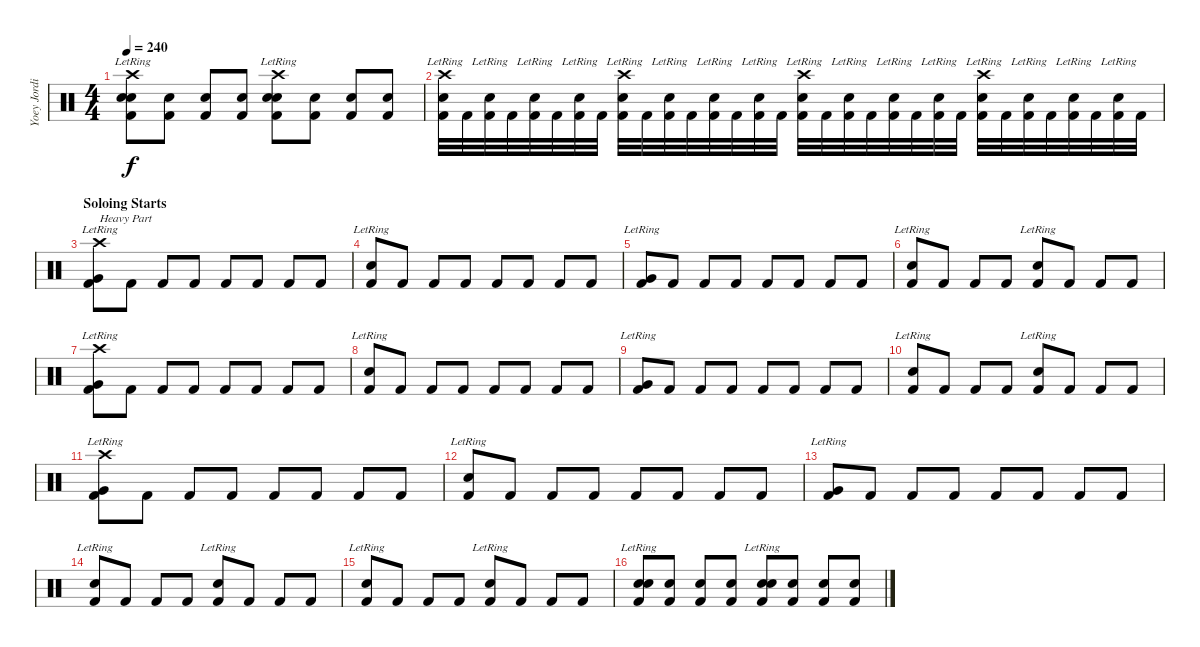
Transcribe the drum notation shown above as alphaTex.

\track ("Yoey Jordison" "Yoey Jordi") {instrument percussion}
\staff {score}
\articulation defaults
\ts (4 4)
\tempo 240
\clef neutral
\ks c
("Crash high (hit)" "Snare (hit) 2" "Kick (hit) 2" "Electric Snare (hit)"{lr}).8{dy f} ("Snare (hit) 2" "Kick (hit) 2").8 ("Snare (hit) 2" "Kick (hit) 2").8 ("Snare (hit) 2" "Kick (hit) 2").8 ("Crash high (hit)" "Snare (hit) 2" "Kick (hit) 2" "Electric Snare (hit)"{lr}).8 ("Snare (hit) 2" "Kick (hit) 2").8 ("Snare (hit) 2" "Kick (hit) 2").8 ("Snare (hit) 2" "Kick (hit) 2").8 |
("Crash high (hit)" "Kick (hit) 2" "Electric Snare (hit)"{lr}).32 "Kick (hit) 2".32 ("Kick (hit) 2" "Electric Snare (hit)"{lr}).32 "Kick (hit) 2".32 ("Kick (hit) 2" "Electric Snare (hit)"{lr}).32 "Kick (hit) 2".32 ("Kick (hit) 2" "Electric Snare (hit)"{lr}).32 "Kick (hit) 2".32 ("Crash high (hit)" "Kick (hit) 2" "Electric Snare (hit)"{lr}).32 "Kick (hit) 2".32 ("Kick (hit) 2" "Electric Snare (hit)"{lr}).32 "Kick (hit) 2".32 ("Kick (hit) 2" "Electric Snare (hit)"{lr}).32 "Kick (hit) 2".32 ("Kick (hit) 2" "Electric Snare (hit)"{lr}).32 "Kick (hit) 2".32 ("Crash high (hit)" "Kick (hit) 2" "Electric Snare (hit)"{lr}).32 "Kick (hit) 2".32 ("Kick (hit) 2" "Electric Snare (hit)"{lr}).32 "Kick (hit) 2".32 ("Kick (hit) 2" "Electric Snare (hit)"{lr}).32 "Kick (hit) 2".32 ("Kick (hit) 2" "Electric Snare (hit)"{lr}).32 "Kick (hit) 2".32 ("Crash high (hit)" "Kick (hit) 2" "Electric Snare (hit)"{lr}).32 "Kick (hit) 2".32 ("Kick (hit) 2" "Electric Snare (hit)"{lr}).32 "Kick (hit) 2".32 ("Kick (hit) 2" "Electric Snare (hit)"{lr}).32 "Kick (hit) 2".32 ("Kick (hit) 2" "Electric Snare (hit)"{lr}).32 "Kick (hit) 2".32 |
\section ("" "Soloing Starts")
("Crash high (hit)" "Kick (hit) 2" "Very Low Tom (hit)"{lr}).8{txt "Heavy Part"} "Kick (hit) 2".8 "Kick (hit) 2".8 "Kick (hit) 2".8 "Kick (hit) 2".8 "Kick (hit) 2".8 "Kick (hit) 2".8 "Kick (hit) 2".8 |
("Kick (hit) 2" "Snare (hit) 2"{lr}).8 "Kick (hit) 2".8 "Kick (hit) 2".8 "Kick (hit) 2".8 "Kick (hit) 2".8 "Kick (hit) 2".8 "Kick (hit) 2".8 "Kick (hit) 2".8 |
("Kick (hit) 2" "Very Low Tom (hit)"{lr}).8 "Kick (hit) 2".8 "Kick (hit) 2".8 "Kick (hit) 2".8 "Kick (hit) 2".8 "Kick (hit) 2".8 "Kick (hit) 2".8 "Kick (hit) 2".8 |
("Kick (hit) 2" "Snare (hit) 2"{lr}).8 "Kick (hit) 2".8 "Kick (hit) 2".8 "Kick (hit) 2".8 ("Kick (hit) 2" "Snare (hit) 2"{lr}).8 "Kick (hit) 2".8 "Kick (hit) 2".8 "Kick (hit) 2".8 |
("Crash high (hit)" "Kick (hit) 2" "Very Low Tom (hit)"{lr}).8 "Kick (hit) 2".8 "Kick (hit) 2".8 "Kick (hit) 2".8 "Kick (hit) 2".8 "Kick (hit) 2".8 "Kick (hit) 2".8 "Kick (hit) 2".8 |
("Kick (hit) 2" "Snare (hit) 2"{lr}).8 "Kick (hit) 2".8 "Kick (hit) 2".8 "Kick (hit) 2".8 "Kick (hit) 2".8 "Kick (hit) 2".8 "Kick (hit) 2".8 "Kick (hit) 2".8 |
("Kick (hit) 2" "Very Low Tom (hit)"{lr}).8 "Kick (hit) 2".8 "Kick (hit) 2".8 "Kick (hit) 2".8 "Kick (hit) 2".8 "Kick (hit) 2".8 "Kick (hit) 2".8 "Kick (hit) 2".8 |
("Kick (hit) 2" "Snare (hit) 2"{lr}).8 "Kick (hit) 2".8 "Kick (hit) 2".8 "Kick (hit) 2".8 ("Kick (hit) 2" "Snare (hit) 2"{lr}).8 "Kick (hit) 2".8 "Kick (hit) 2".8 "Kick (hit) 2".8 |
("Crash high (hit)" "Kick (hit) 2" "Very Low Tom (hit)"{lr}).8 "Kick (hit) 2".8 "Kick (hit) 2".8 "Kick (hit) 2".8 "Kick (hit) 2".8 "Kick (hit) 2".8 "Kick (hit) 2".8 "Kick (hit) 2".8 |
("Kick (hit) 2" "Snare (hit) 2"{lr}).8 "Kick (hit) 2".8 "Kick (hit) 2".8 "Kick (hit) 2".8 "Kick (hit) 2".8 "Kick (hit) 2".8 "Kick (hit) 2".8 "Kick (hit) 2".8 |
("Kick (hit) 2" "Very Low Tom (hit)"{lr}).8 "Kick (hit) 2".8 "Kick (hit) 2".8 "Kick (hit) 2".8 "Kick (hit) 2".8 "Kick (hit) 2".8 "Kick (hit) 2".8 "Kick (hit) 2".8 |
("Kick (hit) 2" "Snare (hit) 2"{lr}).8 "Kick (hit) 2".8 "Kick (hit) 2".8 "Kick (hit) 2".8 ("Kick (hit) 2" "Snare (hit) 2"{lr}).8 "Kick (hit) 2".8 "Kick (hit) 2".8 "Kick (hit) 2".8 |
("Kick (hit) 2" "Electric Snare (hit)"{lr}).8 "Kick (hit) 2".8 "Kick (hit) 2".8 "Kick (hit) 2".8 ("Kick (hit) 2" "Electric Snare (hit)"{lr}).8 "Kick (hit) 2".8 "Kick (hit) 2".8 "Kick (hit) 2".8 |
("Snare (hit) 2" "Kick (hit) 2" "Electric Snare (hit)"{lr}).8 ("Snare (hit) 2" "Kick (hit) 2").8 ("Snare (hit) 2" "Kick (hit) 2").8 ("Snare (hit) 2" "Kick (hit) 2").8 ("Snare (hit) 2" "Kick (hit) 2" "Electric Snare (hit)"{lr}).8 ("Snare (hit) 2" "Kick (hit) 2").8 ("Snare (hit) 2" "Kick (hit) 2").8 ("Snare (hit) 2" "Kick (hit) 2").8
